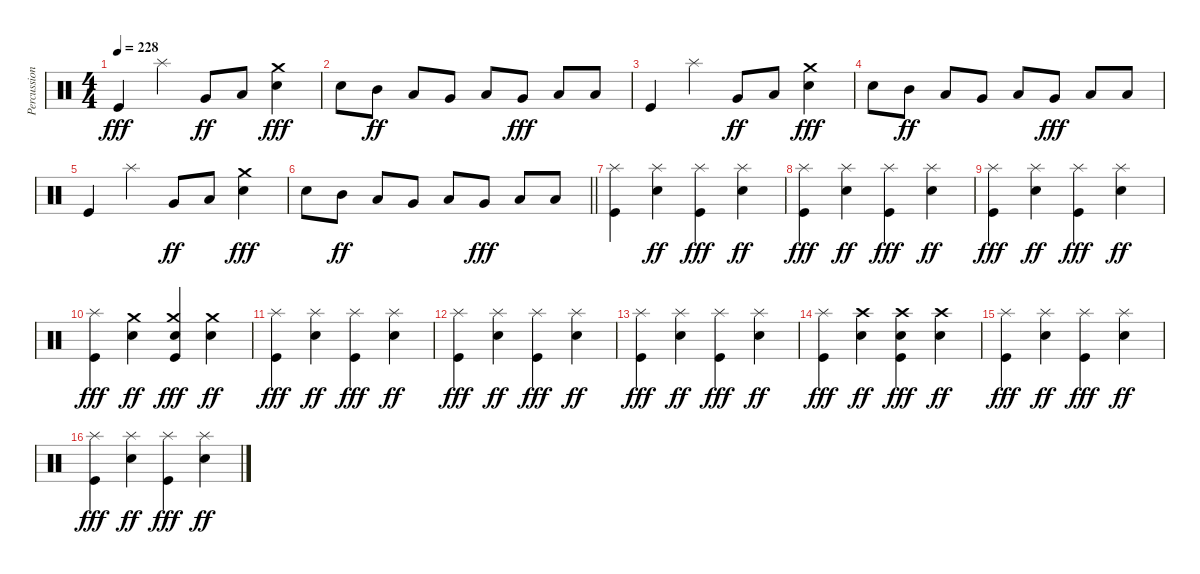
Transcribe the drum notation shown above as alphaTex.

\track ("Percussion" "Percussion") {instrument percussion}
\staff {score}
\articulation defaults
\ts (4 4)
\tempo 228
\clef neutral
\ks c "Kick (hit)".4{dy fff} "Splash (hit)".4 "Very Low Tom (hit)".8{dy ff} "Low Floor Tom (hit)".8
("Crash medium (hit)" "Electric Snare (hit)").4{dy fff} |
"Snare (hit) 2".8 "Mid Tom (hit)".8{dy ff} "Low Tom (hit)".8 "Very Low Tom (hit)".8 "Low Tom (hit)".8 "Very Low Tom (hit)".8{dy fff} "Low Floor Tom (hit)".8 "Low Floor Tom (hit)".8 |
"Kick (hit)".4 "Splash (hit)".4 "Very Low Tom (hit)".8{dy ff} "Low Floor Tom (hit)".8 ("Crash medium (hit)" "Electric Snare (hit)").4{dy fff} |
"Snare (hit) 2".8 "Mid Tom (hit)".8{dy ff} "Low Tom (hit)".8 "Very Low Tom (hit)".8 "Low Tom (hit)".8 "Very Low Tom (hit)".8{dy fff} "Low Floor Tom (hit)".8 "Low Floor Tom (hit)".8 |
"Kick (hit)".4 "Splash (hit)".4 "Very Low Tom (hit)".8{dy ff} "Low Floor Tom (hit)".8 ("Crash medium (hit)" "Electric Snare (hit)").4{dy fff} |
\barLineRight lightlight "Snare (hit) 2".8 "Mid Tom (hit)".8{dy ff} "Low Tom (hit)".8 "Very Low Tom (hit)".8 "Low Tom (hit)".8 "Very Low Tom (hit)".8{dy fff} "Low Floor Tom (hit)".8 "Low Floor Tom (hit)".8
|
("Splash (hit)" "Kick (hit)").4 ("Splash (hit)" "Electric Snare (hit)").4{dy ff} ("Splash (hit)" "Kick (hit)").4{dy fff} ("Splash (hit)" "Electric Snare (hit)").4{dy ff} |
("Splash (hit)" "Kick (hit)").4{dy fff} ("Splash (hit)" "Electric Snare (hit)").4{dy ff} ("Splash (hit)" "Kick (hit)").4{dy fff} ("Splash (hit)" "Electric Snare (hit)").4{dy ff} |
("Splash (hit)" "Kick (hit)").4{dy fff} ("Splash (hit)" "Electric Snare (hit)").4{dy ff} ("Splash (hit)" "Kick (hit)").4{dy fff} ("Splash (hit)" "Electric Snare (hit)").4{dy ff} |
("Splash (hit)" "Kick (hit)").4{dy fff} ("Crash medium (hit)" "Electric Snare (hit)").4{dy ff} ("Crash medium (hit)" "Electric Snare (hit)" "Kick (hit)").4{dy fff} ("Crash medium (hit)" "Electric Snare (hit)").4{dy ff} |
("Splash (hit)" "Kick (hit)").4{dy fff} ("Splash (hit)" "Electric Snare (hit)").4{dy ff} ("Splash (hit)" "Kick (hit)").4{dy fff} ("Splash (hit)" "Electric Snare (hit)").4{dy ff} |
("Splash (hit)" "Kick (hit)").4{dy fff} ("Splash (hit)" "Electric Snare (hit)").4{dy ff} ("Splash (hit)" "Kick (hit)").4{dy fff} ("Splash (hit)" "Electric Snare (hit)").4{dy ff} |
("Splash (hit)" "Kick (hit)").4{dy fff} ("Splash (hit)" "Electric Snare (hit)").4{dy ff} ("Splash (hit)" "Kick (hit)").4{dy fff} ("Splash (hit)" "Electric Snare (hit)").4{dy ff} |
("Splash (hit)" "Kick (hit)").4{dy fff} ("Crash high (hit)" "Electric Snare (hit)").4{dy ff} ("Crash high (hit)" "Electric Snare (hit)" "Kick (hit)").4{dy fff} ("Crash high (hit)" "Electric Snare (hit)").4{dy ff} |
("Splash (hit)" "Kick (hit)").4{dy fff} ("Splash (hit)" "Electric Snare (hit)").4{dy ff} ("Splash (hit)" "Kick (hit)").4{dy fff} ("Splash (hit)" "Electric Snare (hit)").4{dy ff} |
("Splash (hit)" "Kick (hit)").4{dy fff} ("Splash (hit)" "Electric Snare (hit)").4{dy ff} ("Splash (hit)" "Kick (hit)").4{dy fff} ("Splash (hit)" "Electric Snare (hit)").4{dy ff}
